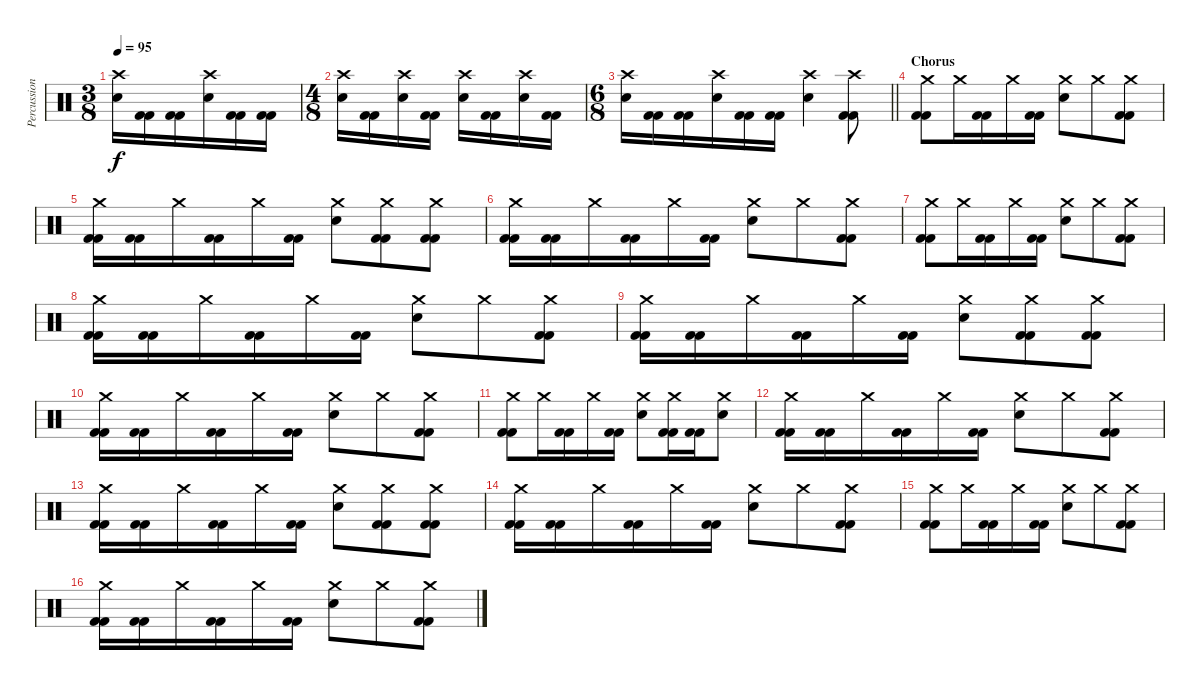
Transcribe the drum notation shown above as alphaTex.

\track ("Percussion" "Percussion") {instrument percussion}
\staff {score}
\articulation defaults
\ts (3 8)
\tempo 95
\clef neutral
\ks c
("Crash high (hit)" "Electric Snare (hit)").16{dy f} ("Kick (hit) 2" "Kick (hit) 2").16 ("Kick (hit) 2" "Kick (hit) 2").16 ("Crash high (hit)" "Electric Snare (hit)").16 ("Kick (hit) 2" "Kick (hit) 2").16 ("Kick (hit) 2" "Kick (hit) 2").16 |
\ts (4 8)
("Crash high (hit)" "Electric Snare (hit)").16 ("Kick (hit) 2" "Kick (hit) 2").16 ("Crash high (hit)" "Electric Snare (hit)").16 ("Kick (hit) 2" "Kick (hit) 2").16 ("Crash high (hit)" "Electric Snare (hit)").16 ("Kick (hit) 2" "Kick (hit) 2").16 ("Crash high (hit)" "Electric Snare (hit)").16 ("Kick (hit) 2" "Kick (hit) 2").16 |
\ts (6 8)
\barLineRight lightlight
("Crash high (hit)" "Electric Snare (hit)").16 ("Kick (hit) 2" "Kick (hit) 2").16 ("Kick (hit) 2" "Kick (hit) 2").16 ("Crash high (hit)" "Electric Snare (hit)").16 ("Kick (hit) 2" "Kick (hit) 2").16 ("Kick (hit) 2" "Kick (hit) 2").16 ("Crash high (hit)" "Electric Snare (hit)").4 ("Crash high (hit)" "Kick (hit) 2" "Kick (hit) 2").8 |
\section ("" "Chorus")
("Crash medium (hit)" "Kick (hit) 2" "Kick (hit) 2").8 "Crash medium (hit)".16 ("Kick (hit) 2" "Kick (hit) 2").16 "Crash medium (hit)".16 ("Kick (hit) 2" "Kick (hit) 2").16 ("Crash medium (hit)" "Electric Snare (hit)").8 "Crash medium (hit)".8 ("Crash medium (hit)" "Kick (hit) 2" "Kick (hit) 2").8 |
("Crash medium (hit)" "Kick (hit) 2" "Kick (hit) 2").16 ("Kick (hit) 2" "Kick (hit) 2").16 "Crash medium (hit)".16 ("Kick (hit) 2" "Kick (hit) 2").16 "Crash medium (hit)".16 ("Kick (hit) 2" "Kick (hit) 2").16 ("Crash medium (hit)" "Electric Snare (hit)").8 ("Crash medium (hit)" "Kick (hit) 2" "Kick (hit) 2").8 ("Crash medium (hit)" "Kick (hit) 2" "Kick (hit) 2").8 |
("Crash medium (hit)" "Kick (hit) 2" "Kick (hit) 2").16 ("Kick (hit) 2" "Kick (hit) 2").16 "Crash medium (hit)".16 ("Kick (hit) 2" "Kick (hit) 2").16 "Crash medium (hit)".16 ("Kick (hit) 2" "Kick (hit) 2").16 ("Crash medium (hit)" "Electric Snare (hit)").8 "Crash medium (hit)".8 ("Crash medium (hit)" "Kick (hit) 2" "Kick (hit) 2").8 |
("Crash medium (hit)" "Kick (hit) 2" "Kick (hit) 2").8 "Crash medium (hit)".16 ("Kick (hit) 2" "Kick (hit) 2").16 "Crash medium (hit)".16 ("Kick (hit) 2" "Kick (hit) 2").16 ("Crash medium (hit)" "Electric Snare (hit)").8 "Crash medium (hit)".8 ("Crash medium (hit)" "Kick (hit) 2" "Kick (hit) 2").8 |
("Crash medium (hit)" "Kick (hit) 2" "Kick (hit) 2").16 ("Kick (hit) 2" "Kick (hit) 2").16 "Crash medium (hit)".16 ("Kick (hit) 2" "Kick (hit) 2").16 "Crash medium (hit)".16 ("Kick (hit) 2" "Kick (hit) 2").16 ("Crash medium (hit)" "Electric Snare (hit)").8 "Crash medium (hit)".8 ("Crash medium (hit)" "Kick (hit) 2" "Kick (hit) 2").8 |
("Crash medium (hit)" "Kick (hit) 2" "Kick (hit) 2").16 ("Kick (hit) 2" "Kick (hit) 2").16 "Crash medium (hit)".16 ("Kick (hit) 2" "Kick (hit) 2").16 "Crash medium (hit)".16 ("Kick (hit) 2" "Kick (hit) 2").16 ("Crash medium (hit)" "Electric Snare (hit)").8 ("Crash medium (hit)" "Kick (hit) 2" "Kick (hit) 2").8 ("Crash medium (hit)" "Kick (hit) 2" "Kick (hit) 2").8 |
("Crash medium (hit)" "Kick (hit) 2" "Kick (hit) 2").16 ("Kick (hit) 2" "Kick (hit) 2").16 "Crash medium (hit)".16 ("Kick (hit) 2" "Kick (hit) 2").16 "Crash medium (hit)".16 ("Kick (hit) 2" "Kick (hit) 2").16 ("Crash medium (hit)" "Electric Snare (hit)").8 "Crash medium (hit)".8 ("Crash medium (hit)" "Kick (hit) 2" "Kick (hit) 2").8 |
("Crash medium (hit)" "Kick (hit) 2" "Kick (hit) 2").8 "Crash medium (hit)".16 ("Kick (hit) 2" "Kick (hit) 2").16 "Crash medium (hit)".16 ("Kick (hit) 2" "Kick (hit) 2").16 ("Crash medium (hit)" "Electric Snare (hit)").8 ("Crash medium (hit)" "Kick (hit) 2" "Kick (hit) 2").16 ("Kick (hit) 2" "Kick (hit) 2").16 ("Crash medium (hit)" "Electric Snare (hit)").8 |
("Crash medium (hit)" "Kick (hit) 2" "Kick (hit) 2").16 ("Kick (hit) 2" "Kick (hit) 2").16 "Crash medium (hit)".16 ("Kick (hit) 2" "Kick (hit) 2").16 "Crash medium (hit)".16 ("Kick (hit) 2" "Kick (hit) 2").16 ("Crash medium (hit)" "Electric Snare (hit)").8 "Crash medium (hit)".8 ("Crash medium (hit)" "Kick (hit) 2" "Kick (hit) 2").8 |
("Crash medium (hit)" "Kick (hit) 2" "Kick (hit) 2").16 ("Kick (hit) 2" "Kick (hit) 2").16 "Crash medium (hit)".16 ("Kick (hit) 2" "Kick (hit) 2").16 "Crash medium (hit)".16 ("Kick (hit) 2" "Kick (hit) 2").16 ("Crash medium (hit)" "Electric Snare (hit)").8 ("Crash medium (hit)" "Kick (hit) 2" "Kick (hit) 2").8 ("Crash medium (hit)" "Kick (hit) 2" "Kick (hit) 2").8 |
("Crash medium (hit)" "Kick (hit) 2" "Kick (hit) 2").16 ("Kick (hit) 2" "Kick (hit) 2").16 "Crash medium (hit)".16 ("Kick (hit) 2" "Kick (hit) 2").16 "Crash medium (hit)".16 ("Kick (hit) 2" "Kick (hit) 2").16 ("Crash medium (hit)" "Electric Snare (hit)").8 "Crash medium (hit)".8 ("Crash medium (hit)" "Kick (hit) 2" "Kick (hit) 2").8 |
("Crash medium (hit)" "Kick (hit) 2" "Kick (hit) 2").8 "Crash medium (hit)".16 ("Kick (hit) 2" "Kick (hit) 2").16 "Crash medium (hit)".16 ("Kick (hit) 2" "Kick (hit) 2").16 ("Crash medium (hit)" "Electric Snare (hit)").8 "Crash medium (hit)".8 ("Crash medium (hit)" "Kick (hit) 2" "Kick (hit) 2").8 |
("Crash medium (hit)" "Kick (hit) 2" "Kick (hit) 2").16 ("Kick (hit) 2" "Kick (hit) 2").16 "Crash medium (hit)".16 ("Kick (hit) 2" "Kick (hit) 2").16 "Crash medium (hit)".16 ("Kick (hit) 2" "Kick (hit) 2").16 ("Crash medium (hit)" "Electric Snare (hit)").8 "Crash medium (hit)".8 ("Crash medium (hit)" "Kick (hit) 2" "Kick (hit) 2").8
